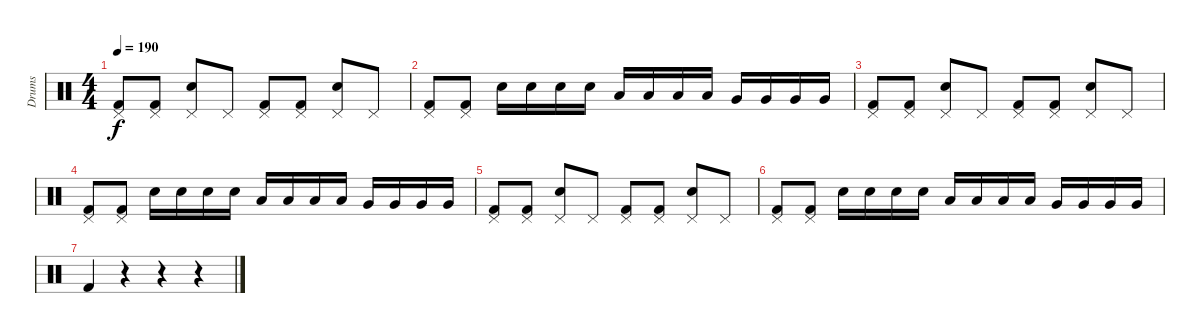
\track ("Drums" "Drums") {instrument percussion}
\staff {score}
\articulation defaults
\ts (4 4)
\tempo 190
\clef neutral
\ks c
("Kick (hit) 2" "Pedal Hi-Hat (hit)").8{dy f} ("Kick (hit) 2" "Pedal Hi-Hat (hit)").8 ("Electric Snare (hit)" "Pedal Hi-Hat (hit)").8 "Pedal Hi-Hat (hit)".8 ("Kick (hit) 2" "Pedal Hi-Hat (hit)").8 ("Kick (hit) 2" "Pedal Hi-Hat (hit)").8 ("Electric Snare (hit)" "Pedal Hi-Hat (hit)").8 "Pedal Hi-Hat (hit)".8 |
("Kick (hit) 2" "Pedal Hi-Hat (hit)").8 ("Kick (hit) 2" "Pedal Hi-Hat (hit)").8 "Electric Snare (hit)".16 "Electric Snare (hit)".16 "Electric Snare (hit)".16 "Electric Snare (hit)".16 "Low Floor Tom (hit)".16 "Low Floor Tom (hit)".16 "Low Floor Tom (hit)".16 "Low Floor Tom (hit)".16 "Very Low Tom (hit)".16 "Very Low Tom (hit)".16 "Very Low Tom (hit)".16 "Very Low Tom (hit)".16 |
("Kick (hit) 2" "Pedal Hi-Hat (hit)").8 ("Kick (hit) 2" "Pedal Hi-Hat (hit)").8 ("Electric Snare (hit)" "Pedal Hi-Hat (hit)").8 "Pedal Hi-Hat (hit)".8 ("Kick (hit) 2" "Pedal Hi-Hat (hit)").8 ("Kick (hit) 2" "Pedal Hi-Hat (hit)").8 ("Electric Snare (hit)" "Pedal Hi-Hat (hit)").8 "Pedal Hi-Hat (hit)".8 |
("Kick (hit) 2" "Pedal Hi-Hat (hit)").8 ("Kick (hit) 2" "Pedal Hi-Hat (hit)").8 "Electric Snare (hit)".16 "Electric Snare (hit)".16 "Electric Snare (hit)".16 "Electric Snare (hit)".16 "Low Floor Tom (hit)".16 "Low Floor Tom (hit)".16 "Low Floor Tom (hit)".16 "Low Floor Tom (hit)".16 "Very Low Tom (hit)".16 "Very Low Tom (hit)".16 "Very Low Tom (hit)".16 "Very Low Tom (hit)".16 |
("Kick (hit) 2" "Pedal Hi-Hat (hit)").8 ("Kick (hit) 2" "Pedal Hi-Hat (hit)").8 ("Electric Snare (hit)" "Pedal Hi-Hat (hit)").8 "Pedal Hi-Hat (hit)".8 ("Kick (hit) 2" "Pedal Hi-Hat (hit)").8 ("Kick (hit) 2" "Pedal Hi-Hat (hit)").8 ("Electric Snare (hit)" "Pedal Hi-Hat (hit)").8 "Pedal Hi-Hat (hit)".8 |
("Kick (hit) 2" "Pedal Hi-Hat (hit)").8 ("Kick (hit) 2" "Pedal Hi-Hat (hit)").8 "Electric Snare (hit)".16 "Electric Snare (hit)".16 "Electric Snare (hit)".16 "Electric Snare (hit)".16 "Low Floor Tom (hit)".16 "Low Floor Tom (hit)".16 "Low Floor Tom (hit)".16 "Low Floor Tom (hit)".16 "Very Low Tom (hit)".16 "Very Low Tom (hit)".16 "Very Low Tom (hit)".16 "Very Low Tom (hit)".16 |
"Kick (hit) 2".4 r.4 r.4 r.4
